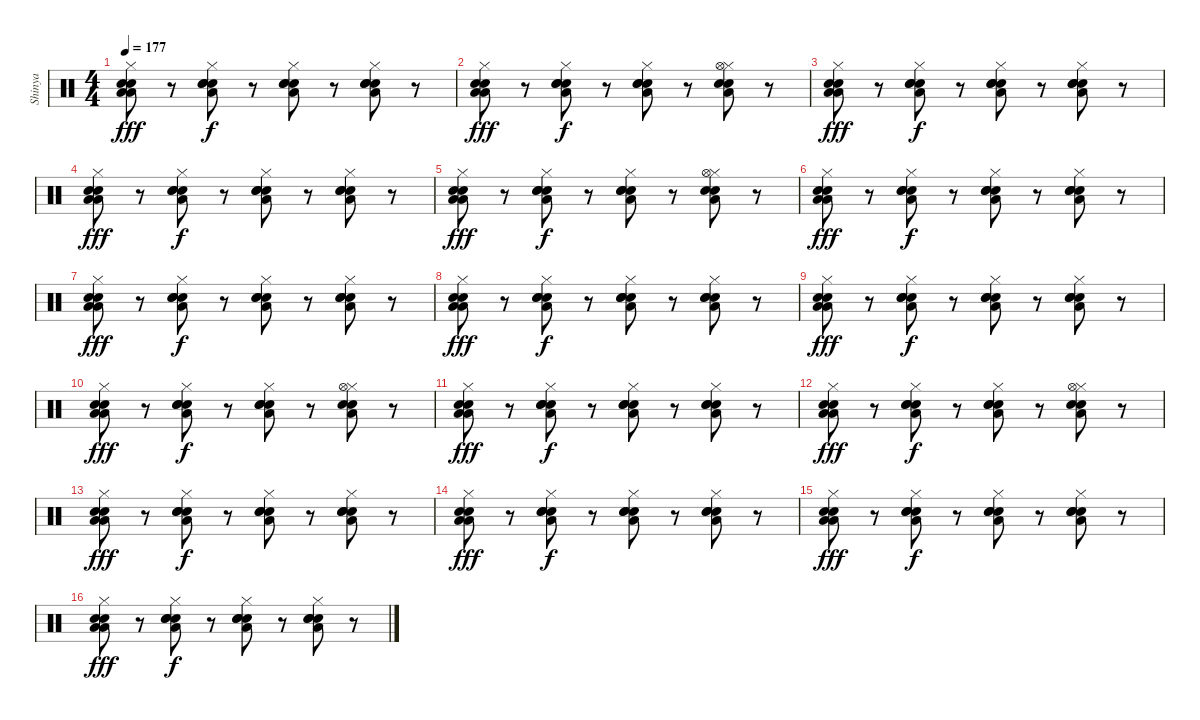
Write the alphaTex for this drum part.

\track ("Shinya " "Shinya ") {instrument percussion}
\staff {score}
\articulation defaults
\ts (4 4)
\tempo 177
\clef neutral
\ks c
("Hi-Hat (closed)" "Electric Snare (hit)" "Low Tom (hit)" "Electric Snare (hit)" "Low Tom (hit)").8{dy fff} r.8 ("Hi-Hat (closed)" "Electric Snare (hit)" "Low Tom (hit)" "Electric Snare (hit)" "Snare (hit) 2").8{dy f} r.8 ("Hi-Hat (closed)" "Electric Snare (hit)" "Electric Snare (hit)" "Snare (hit) 2" "Low Tom (hit)").8 r.8 ("Hi-Hat (closed)" "Electric Snare (hit)" "Electric Snare (hit)" "Low Tom (hit)" "Electric Snare (hit)").8 r.8 |
("Hi-Hat (closed)" "Electric Snare (hit)" "Low Tom (hit)" "Electric Snare (hit)" "Low Tom (hit)").8{dy fff} r.8 ("Hi-Hat (closed)" "Electric Snare (hit)" "Low Tom (hit)" "Electric Snare (hit)" "Snare (hit) 2").8{dy f} r.8 ("Hi-Hat (closed)" "Electric Snare (hit)" "Electric Snare (hit)" "Snare (hit) 2" "Low Tom (hit)").8 r.8 ("Hi-Hat (closed)" "Hi-Hat (open)" "Electric Snare (hit)" "Electric Snare (hit)" "Low Tom (hit)").8 r.8 |
("Hi-Hat (closed)" "Electric Snare (hit)" "Low Tom (hit)" "Electric Snare (hit)" "Low Tom (hit)").8{dy fff} r.8 ("Hi-Hat (closed)" "Electric Snare (hit)" "Low Tom (hit)" "Electric Snare (hit)" "Snare (hit) 2").8{dy f} r.8 ("Hi-Hat (closed)" "Electric Snare (hit)" "Electric Snare (hit)" "Snare (hit) 2" "Low Tom (hit)").8 r.8 ("Hi-Hat (closed)" "Electric Snare (hit)" "Electric Snare (hit)" "Electric Snare (hit)" "Low Tom (hit)").8 r.8 |
("Hi-Hat (closed)" "Electric Snare (hit)" "Low Tom (hit)" "Electric Snare (hit)" "Low Tom (hit)").8{dy fff} r.8 ("Hi-Hat (closed)" "Electric Snare (hit)" "Low Tom (hit)" "Electric Snare (hit)" "Snare (hit) 2").8{dy f} r.8 ("Hi-Hat (closed)" "Electric Snare (hit)" "Electric Snare (hit)" "Snare (hit) 2" "Low Tom (hit)").8 r.8 ("Hi-Hat (closed)" "Electric Snare (hit)" "Electric Snare (hit)" "Low Tom (hit)" "Electric Snare (hit)").8 r.8 |
("Hi-Hat (closed)" "Electric Snare (hit)" "Low Tom (hit)" "Electric Snare (hit)" "Low Tom (hit)").8{dy fff} r.8 ("Hi-Hat (closed)" "Electric Snare (hit)" "Low Tom (hit)" "Electric Snare (hit)" "Snare (hit) 2").8{dy f} r.8 ("Hi-Hat (closed)" "Electric Snare (hit)" "Electric Snare (hit)" "Snare (hit) 2" "Low Tom (hit)").8 r.8 ("Hi-Hat (closed)" "Hi-Hat (open)" "Electric Snare (hit)" "Electric Snare (hit)" "Low Tom (hit)").8 r.8 |
("Hi-Hat (closed)" "Electric Snare (hit)" "Low Tom (hit)" "Electric Snare (hit)" "Low Tom (hit)").8{dy fff} r.8 ("Hi-Hat (closed)" "Electric Snare (hit)" "Low Tom (hit)" "Electric Snare (hit)" "Snare (hit) 2").8{dy f} r.8 ("Hi-Hat (closed)" "Electric Snare (hit)" "Electric Snare (hit)" "Snare (hit) 2" "Low Tom (hit)").8 r.8 ("Hi-Hat (closed)" "Electric Snare (hit)" "Electric Snare (hit)" "Electric Snare (hit)" "Low Tom (hit)").8 r.8 |
("Hi-Hat (closed)" "Electric Snare (hit)" "Low Tom (hit)" "Electric Snare (hit)" "Low Tom (hit)").8{dy fff} r.8 ("Hi-Hat (closed)" "Electric Snare (hit)" "Low Tom (hit)" "Electric Snare (hit)" "Snare (hit) 2").8{dy f} r.8 ("Hi-Hat (closed)" "Electric Snare (hit)" "Electric Snare (hit)" "Snare (hit) 2" "Low Tom (hit)").8 r.8 ("Hi-Hat (closed)" "Electric Snare (hit)" "Electric Snare (hit)" "Low Tom (hit)" "Electric Snare (hit)").8 r.8 |
("Hi-Hat (closed)" "Electric Snare (hit)" "Low Tom (hit)" "Electric Snare (hit)" "Low Tom (hit)").8{dy fff} r.8 ("Hi-Hat (closed)" "Electric Snare (hit)" "Low Tom (hit)" "Electric Snare (hit)" "Snare (hit) 2").8{dy f} r.8 ("Hi-Hat (closed)" "Electric Snare (hit)" "Electric Snare (hit)" "Snare (hit) 2" "Low Tom (hit)").8 r.8 ("Hi-Hat (closed)" "Electric Snare (hit)" "Electric Snare (hit)" "Electric Snare (hit)" "Low Tom (hit)").8 r.8 |
("Hi-Hat (closed)" "Electric Snare (hit)" "Low Tom (hit)" "Electric Snare (hit)" "Low Tom (hit)").8{dy fff} r.8 ("Hi-Hat (closed)" "Electric Snare (hit)" "Low Tom (hit)" "Electric Snare (hit)" "Snare (hit) 2").8{dy f} r.8 ("Hi-Hat (closed)" "Electric Snare (hit)" "Electric Snare (hit)" "Snare (hit) 2" "Low Tom (hit)").8 r.8 ("Hi-Hat (closed)" "Electric Snare (hit)" "Electric Snare (hit)" "Low Tom (hit)" "Electric Snare (hit)").8 r.8 |
("Hi-Hat (closed)" "Electric Snare (hit)" "Low Tom (hit)" "Electric Snare (hit)" "Low Tom (hit)").8{dy fff} r.8 ("Hi-Hat (closed)" "Electric Snare (hit)" "Low Tom (hit)" "Electric Snare (hit)" "Snare (hit) 2").8{dy f} r.8 ("Hi-Hat (closed)" "Electric Snare (hit)" "Electric Snare (hit)" "Snare (hit) 2" "Low Tom (hit)").8 r.8 ("Hi-Hat (closed)" "Hi-Hat (open)" "Electric Snare (hit)" "Electric Snare (hit)" "Low Tom (hit)").8 r.8 |
("Hi-Hat (closed)" "Electric Snare (hit)" "Low Tom (hit)" "Electric Snare (hit)" "Low Tom (hit)").8{dy fff} r.8 ("Hi-Hat (closed)" "Electric Snare (hit)" "Low Tom (hit)" "Electric Snare (hit)" "Snare (hit) 2").8{dy f} r.8 ("Hi-Hat (closed)" "Electric Snare (hit)" "Electric Snare (hit)" "Snare (hit) 2" "Low Tom (hit)").8 r.8 ("Hi-Hat (closed)" "Electric Snare (hit)" "Electric Snare (hit)" "Electric Snare (hit)" "Low Tom (hit)").8 r.8 |
("Hi-Hat (closed)" "Electric Snare (hit)" "Low Tom (hit)" "Electric Snare (hit)" "Low Tom (hit)").8{dy fff} r.8 ("Hi-Hat (closed)" "Electric Snare (hit)" "Low Tom (hit)" "Electric Snare (hit)" "Snare (hit) 2").8{dy f} r.8 ("Hi-Hat (closed)" "Electric Snare (hit)" "Electric Snare (hit)" "Snare (hit) 2" "Low Tom (hit)").8 r.8 ("Hi-Hat (closed)" "Hi-Hat (open)" "Electric Snare (hit)" "Electric Snare (hit)" "Low Tom (hit)").8 r.8 |
("Hi-Hat (closed)" "Electric Snare (hit)" "Low Tom (hit)" "Electric Snare (hit)" "Low Tom (hit)").8{dy fff} r.8 ("Hi-Hat (closed)" "Electric Snare (hit)" "Low Tom (hit)" "Electric Snare (hit)" "Snare (hit) 2").8{dy f} r.8 ("Hi-Hat (closed)" "Electric Snare (hit)" "Electric Snare (hit)" "Snare (hit) 2" "Low Tom (hit)").8 r.8 ("Hi-Hat (closed)" "Electric Snare (hit)" "Electric Snare (hit)" "Electric Snare (hit)" "Low Tom (hit)").8 r.8 |
("Hi-Hat (closed)" "Electric Snare (hit)" "Low Tom (hit)" "Electric Snare (hit)" "Low Tom (hit)").8{dy fff} r.8 ("Hi-Hat (closed)" "Electric Snare (hit)" "Low Tom (hit)" "Electric Snare (hit)" "Snare (hit) 2").8{dy f} r.8 ("Hi-Hat (closed)" "Electric Snare (hit)" "Electric Snare (hit)" "Snare (hit) 2" "Low Tom (hit)").8 r.8 ("Hi-Hat (closed)" "Electric Snare (hit)" "Electric Snare (hit)" "Low Tom (hit)" "Electric Snare (hit)").8 r.8 |
("Hi-Hat (closed)" "Electric Snare (hit)" "Low Tom (hit)" "Electric Snare (hit)" "Low Tom (hit)").8{dy fff} r.8 ("Hi-Hat (closed)" "Electric Snare (hit)" "Low Tom (hit)" "Electric Snare (hit)" "Snare (hit) 2").8{dy f} r.8 ("Hi-Hat (closed)" "Electric Snare (hit)" "Electric Snare (hit)" "Snare (hit) 2" "Low Tom (hit)").8 r.8 ("Hi-Hat (closed)" "Electric Snare (hit)" "Electric Snare (hit)" "Electric Snare (hit)" "Low Tom (hit)").8 r.8 |
("Hi-Hat (closed)" "Electric Snare (hit)" "Low Tom (hit)" "Electric Snare (hit)" "Low Tom (hit)").8{dy fff} r.8 ("Hi-Hat (closed)" "Electric Snare (hit)" "Low Tom (hit)" "Electric Snare (hit)" "Snare (hit) 2").8{dy f} r.8 ("Hi-Hat (closed)" "Electric Snare (hit)" "Electric Snare (hit)" "Snare (hit) 2" "Low Tom (hit)").8 r.8 ("Hi-Hat (closed)" "Electric Snare (hit)" "Electric Snare (hit)" "Low Tom (hit)" "Electric Snare (hit)").8 r.8
